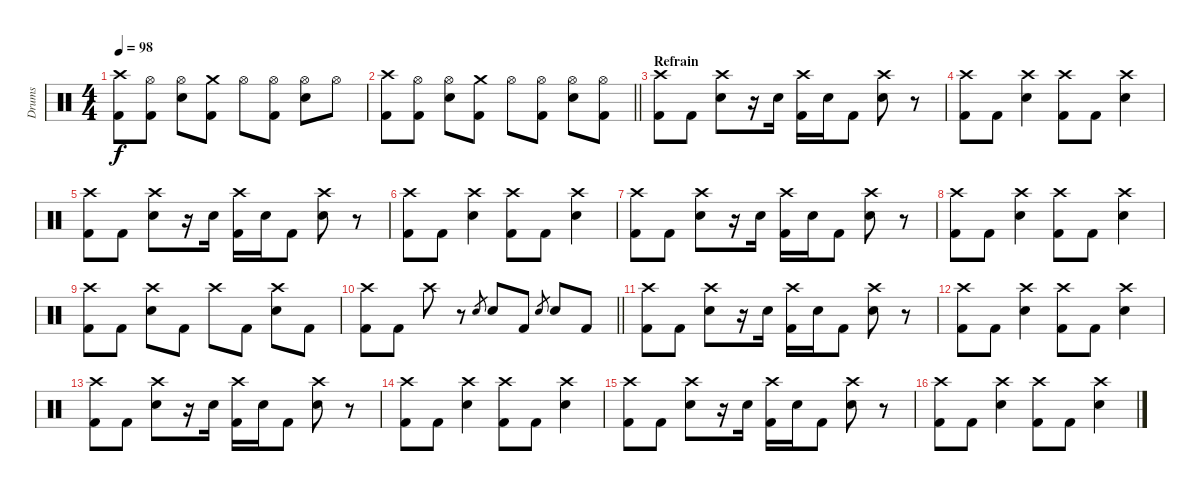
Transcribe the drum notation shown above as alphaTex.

\track ("Drums" "Drums") {instrument percussion}
\staff {score}
\articulation defaults
\ts (4 4)
\tempo 98
\clef neutral
\ks c
("Crash high (hit)" "Kick (hit) 2").8{dy f} ("Hi-Hat (open)" "Kick (hit) 2").8 ("Hi-Hat (open)" "Snare (hit) 2").8 ("Crash medium (hit)" "Kick (hit) 2").8 "Hi-Hat (open)".8 ("Hi-Hat (open)" "Kick (hit) 2").8 ("Hi-Hat (open)" "Snare (hit) 2").8 "Hi-Hat (open)".8 |
\barLineRight lightlight
("Crash high (hit)" "Kick (hit) 2").8 ("Hi-Hat (open)" "Kick (hit) 2").8 ("Hi-Hat (open)" "Snare (hit) 2").8 ("Crash medium (hit)" "Kick (hit) 2").8 "Hi-Hat (open)".8 ("Hi-Hat (open)" "Kick (hit) 2").8 ("Hi-Hat (open)" "Snare (hit) 2").8 ("Hi-Hat (open)" "Kick (hit) 2").8 |
\section ("" "Refrain")
("Crash high (hit)" "Kick (hit) 2").8 "Kick (hit) 2".8 ("Crash high (hit)" "Snare (hit) 2").8 r.16 "Snare (hit) 2".16 ("Crash high (hit)" "Kick (hit) 2").16 "Snare (hit) 2".16 "Kick (hit) 2".8 ("Crash high (hit)" "Snare (hit) 2").8 r.8 |
("Crash high (hit)" "Kick (hit) 2").8 "Kick (hit) 2".8 ("Crash high (hit)" "Snare (hit) 2").4 ("Crash high (hit)" "Kick (hit) 2").8 "Kick (hit) 2".8 ("Crash high (hit)" "Snare (hit) 2").4 |
("Crash high (hit)" "Kick (hit) 2").8 "Kick (hit) 2".8 ("Crash high (hit)" "Snare (hit) 2").8 r.16 "Snare (hit) 2".16 ("Crash high (hit)" "Kick (hit) 2").16 "Snare (hit) 2".16 "Kick (hit) 2".8 ("Crash high (hit)" "Snare (hit) 2").8 r.8 |
("Crash high (hit)" "Kick (hit) 2").8 "Kick (hit) 2".8 ("Crash high (hit)" "Snare (hit) 2").4 ("Crash high (hit)" "Kick (hit) 2").8 "Kick (hit) 2".8 ("Crash high (hit)" "Snare (hit) 2").4 |
("Crash high (hit)" "Kick (hit) 2").8 "Kick (hit) 2".8 ("Crash high (hit)" "Snare (hit) 2").8 r.16 "Snare (hit) 2".16 ("Crash high (hit)" "Kick (hit) 2").16 "Snare (hit) 2".16 "Kick (hit) 2".8 ("Crash high (hit)" "Snare (hit) 2").8 r.8 |
("Crash high (hit)" "Kick (hit) 2").8 "Kick (hit) 2".8 ("Crash high (hit)" "Snare (hit) 2").4 ("Crash high (hit)" "Kick (hit) 2").8 "Kick (hit) 2".8 ("Crash high (hit)" "Snare (hit) 2").4 |
("Crash high (hit)" "Kick (hit) 2").8 "Kick (hit) 2".8 ("Crash high (hit)" "Snare (hit) 2").8 "Kick (hit) 2".8 "Crash high (hit)".8 "Kick (hit) 2".8 ("Crash high (hit)" "Snare (hit) 2").8 "Kick (hit) 2".8 |
\barLineRight lightlight
("Crash high (hit)" "Kick (hit) 2").8 "Kick (hit) 2".8 "Crash high (hit)".8 r.8 "Snare (hit) 2".8{gr} "Snare (hit) 2".8 "Kick (hit) 2".8 "Snare (hit) 2".8{gr} "Snare (hit) 2".8 "Kick (hit) 2".8 |
("Crash high (hit)" "Kick (hit) 2").8 "Kick (hit) 2".8 ("Crash high (hit)" "Snare (hit) 2").8 r.16 "Snare (hit) 2".16 ("Crash high (hit)" "Kick (hit) 2").16 "Snare (hit) 2".16 "Kick (hit) 2".8 ("Crash high (hit)" "Snare (hit) 2").8 r.8 |
("Crash high (hit)" "Kick (hit) 2").8 "Kick (hit) 2".8 ("Crash high (hit)" "Snare (hit) 2").4 ("Crash high (hit)" "Kick (hit) 2").8 "Kick (hit) 2".8 ("Crash high (hit)" "Snare (hit) 2").4 |
("Crash high (hit)" "Kick (hit) 2").8 "Kick (hit) 2".8 ("Crash high (hit)" "Snare (hit) 2").8 r.16 "Snare (hit) 2".16 ("Crash high (hit)" "Kick (hit) 2").16 "Snare (hit) 2".16 "Kick (hit) 2".8 ("Crash high (hit)" "Snare (hit) 2").8 r.8 |
("Crash high (hit)" "Kick (hit) 2").8 "Kick (hit) 2".8 ("Crash high (hit)" "Snare (hit) 2").4 ("Crash high (hit)" "Kick (hit) 2").8 "Kick (hit) 2".8 ("Crash high (hit)" "Snare (hit) 2").4 |
("Crash high (hit)" "Kick (hit) 2").8 "Kick (hit) 2".8 ("Crash high (hit)" "Snare (hit) 2").8 r.16 "Snare (hit) 2".16 ("Crash high (hit)" "Kick (hit) 2").16 "Snare (hit) 2".16 "Kick (hit) 2".8 ("Crash high (hit)" "Snare (hit) 2").8 r.8 |
("Crash high (hit)" "Kick (hit) 2").8 "Kick (hit) 2".8 ("Crash high (hit)" "Snare (hit) 2").4 ("Crash high (hit)" "Kick (hit) 2").8 "Kick (hit) 2".8 ("Crash high (hit)" "Snare (hit) 2").4
